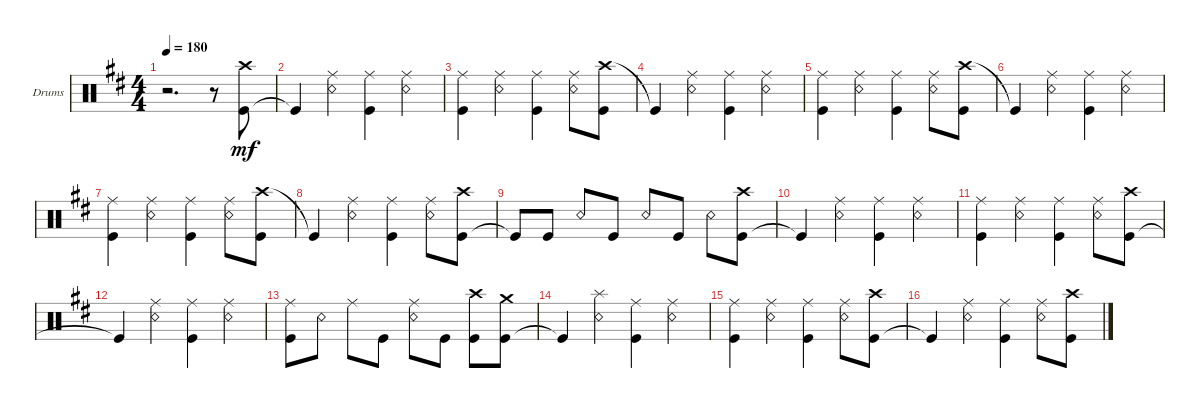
\defaultSystemsLayout 4
\bracketExtendMode groupsimilarinstruments
\firstSystemTrackNameOrientation horizontal
\otherSystemsTrackNameOrientation horizontal
\track ("Drumkit" "Drums") {instrument percussion}
\staff {score}
\articulation defaults
\ts (4 4)
\tempo 180
\clef neutral
\ks bminor
r.2{d dy mf} r.8 ("Kick (hit)" "Crash high (hit)").8 |
"Kick (hit)"{t}.4 ("Ride (middle)" "Snare (rim shot)").4 ("Ride (middle)" "Kick (hit)").4 ("Ride (middle)" "Snare (rim shot)").4 |
("Ride (middle)" "Kick (hit)").4 ("Ride (middle)" "Snare (rim shot)").4 ("Ride (middle)" "Kick (hit)").4 ("Ride (middle)" "Snare (rim shot)").8 ("Crash high (hit)" "Kick (hit)").8 |
"Kick (hit)"{t}.4 ("Ride (middle)" "Snare (rim shot)").4 ("Ride (middle)" "Kick (hit)").4 ("Ride (middle)" "Snare (rim shot)").4 |
("Ride (middle)" "Kick (hit)").4 ("Ride (middle)" "Snare (rim shot)").4 ("Ride (middle)" "Kick (hit)").4 ("Ride (middle)" "Snare (rim shot)").8 ("Crash high (hit)" "Kick (hit)").8 |
"Kick (hit)"{t}.4 ("Ride (middle)" "Snare (rim shot)").4 ("Ride (middle)" "Kick (hit)").4 ("Ride (middle)" "Snare (rim shot)").4 |
("Ride (middle)" "Kick (hit)").4 ("Ride (middle)" "Snare (rim shot)").4 ("Ride (middle)" "Kick (hit)").4 ("Ride (middle)" "Snare (rim shot)").8 ("Crash high (hit)" "Kick (hit)").8 |
"Kick (hit)"{t}.4 ("Ride (middle)" "Snare (rim shot)").4 ("Ride (middle)" "Kick (hit)").4 ("Ride (middle)" "Snare (rim shot)").8 ("Kick (hit)" "Crash high (hit)").8 |
"Kick (hit)"{t}.8 "Kick (hit)".8 "Snare (rim shot)".8 "Kick (hit)".8 "Snare (rim shot)".8 "Kick (hit)".8 "Snare (rim shot)".8 ("Kick (hit)" "Crash high (hit)").8 |
"Kick (hit)"{t}.4 ("Ride (middle)" "Snare (rim shot)").4 ("Ride (middle)" "Kick (hit)").4 ("Ride (middle)" "Snare (rim shot)").4 |
("Ride (middle)" "Kick (hit)").4 ("Ride (middle)" "Snare (rim shot)").4 ("Ride (middle)" "Kick (hit)").4 ("Ride (middle)" "Snare (rim shot)").8 ("Kick (hit)" "Crash high (hit)").8 |
"Kick (hit)"{t}.4 ("Ride (middle)" "Snare (rim shot)").4 ("Ride (middle)" "Kick (hit)").4 ("Ride (middle)" "Snare (rim shot)").4 |
("Ride (middle)" "Kick (hit)").8 "Snare (rim shot)".8 "Ride (middle)".8 "Kick (hit)".8 ("Ride (middle)" "Snare (rim shot)").8 "Kick (hit)".8 ("Kick (hit)" "Crash high (hit)").8 ("Kick (hit)" "Crash medium (hit)").8 |
"Kick (hit)"{t}.4 ("Snare (rim shot)" "Splash (hit)").4 ("Kick (hit)" "Ride (middle)").4 ("Ride (middle)" "Snare (rim shot)").4 |
("Ride (middle)" "Kick (hit)").4 ("Ride (middle)" "Snare (rim shot)").4 ("Ride (middle)" "Kick (hit)").4 ("Ride (middle)" "Snare (rim shot)").8 ("Kick (hit)" "Crash high (hit)").8 |
"Kick (hit)"{t}.4 ("Ride (middle)" "Snare (rim shot)").4 ("Ride (middle)" "Kick (hit)").4 ("Ride (middle)" "Snare (rim shot)").8 ("Kick (hit)" "Crash high (hit)").8
